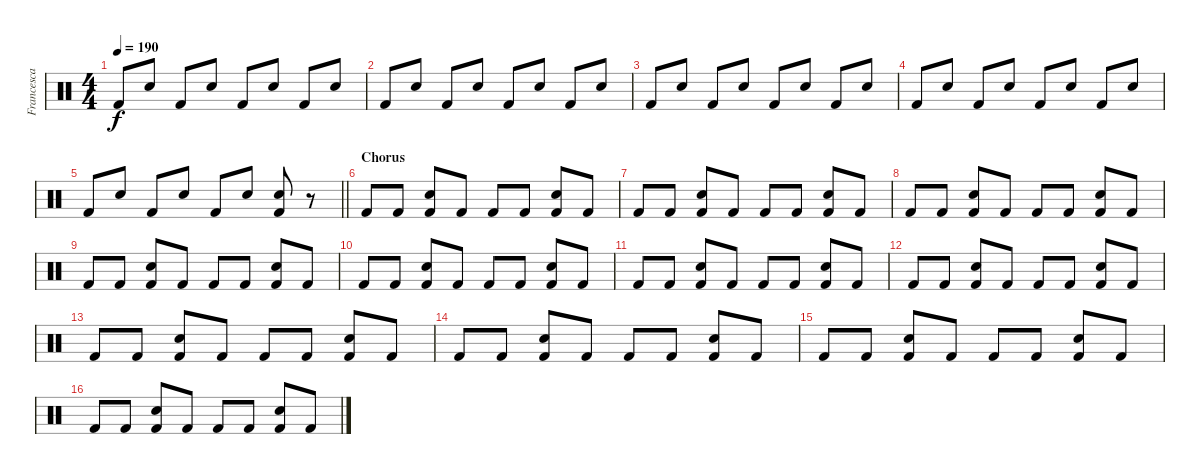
\track ("Francesca Tresca" "Francesca ") {instrument percussion}
\staff {score}
\articulation defaults
\ts (4 4)
\tempo 190
\clef neutral
\ks c "Kick (hit) 2".8{dy f} "Snare (hit) 2".8 "Kick (hit) 2".8 "Snare (hit) 2".8 "Kick (hit) 2".8 "Snare (hit) 2".8 "Kick (hit) 2".8 "Snare (hit) 2".8
|
"Kick (hit) 2".8 "Snare (hit) 2".8 "Kick (hit) 2".8 "Snare (hit) 2".8 "Kick (hit) 2".8 "Snare (hit) 2".8 "Kick (hit) 2".8 "Snare (hit) 2".8 |
"Kick (hit) 2".8 "Snare (hit) 2".8 "Kick (hit) 2".8 "Snare (hit) 2".8 "Kick (hit) 2".8 "Snare (hit) 2".8 "Kick (hit) 2".8 "Snare (hit) 2".8 |
"Kick (hit) 2".8 "Snare (hit) 2".8 "Kick (hit) 2".8 "Snare (hit) 2".8 "Kick (hit) 2".8 "Snare (hit) 2".8 "Kick (hit) 2".8 "Snare (hit) 2".8 |
\barLineRight lightlight "Kick (hit) 2".8 "Snare (hit) 2".8 "Kick (hit) 2".8 "Snare (hit) 2".8 "Kick (hit) 2".8 "Snare (hit) 2".8
("Snare (hit) 2" "Kick (hit) 2").8 r.8 |
\section ("" "Chorus")
"Kick (hit) 2".8 "Kick (hit) 2".8 ("Snare (hit) 2" "Kick (hit) 2").8 "Kick (hit) 2".8 "Kick (hit) 2".8 "Kick (hit) 2".8 ("Snare (hit) 2" "Kick (hit) 2").8 "Kick (hit) 2".8 |
"Kick (hit) 2".8 "Kick (hit) 2".8 ("Snare (hit) 2" "Kick (hit) 2").8 "Kick (hit) 2".8 "Kick (hit) 2".8 "Kick (hit) 2".8 ("Snare (hit) 2" "Kick (hit) 2").8 "Kick (hit) 2".8 |
"Kick (hit) 2".8 "Kick (hit) 2".8 ("Snare (hit) 2" "Kick (hit) 2").8 "Kick (hit) 2".8 "Kick (hit) 2".8 "Kick (hit) 2".8 ("Snare (hit) 2" "Kick (hit) 2").8 "Kick (hit) 2".8 |
"Kick (hit) 2".8 "Kick (hit) 2".8 ("Snare (hit) 2" "Kick (hit) 2").8 "Kick (hit) 2".8 "Kick (hit) 2".8 "Kick (hit) 2".8 ("Snare (hit) 2" "Kick (hit) 2").8 "Kick (hit) 2".8 |
"Kick (hit) 2".8 "Kick (hit) 2".8 ("Snare (hit) 2" "Kick (hit) 2").8 "Kick (hit) 2".8 "Kick (hit) 2".8 "Kick (hit) 2".8 ("Snare (hit) 2" "Kick (hit) 2").8 "Kick (hit) 2".8 |
"Kick (hit) 2".8 "Kick (hit) 2".8 ("Snare (hit) 2" "Kick (hit) 2").8 "Kick (hit) 2".8 "Kick (hit) 2".8 "Kick (hit) 2".8 ("Snare (hit) 2" "Kick (hit) 2").8 "Kick (hit) 2".8 |
"Kick (hit) 2".8 "Kick (hit) 2".8 ("Snare (hit) 2" "Kick (hit) 2").8 "Kick (hit) 2".8 "Kick (hit) 2".8 "Kick (hit) 2".8 ("Snare (hit) 2" "Kick (hit) 2").8 "Kick (hit) 2".8 |
"Kick (hit) 2".8 "Kick (hit) 2".8 ("Snare (hit) 2" "Kick (hit) 2").8 "Kick (hit) 2".8 "Kick (hit) 2".8 "Kick (hit) 2".8 ("Snare (hit) 2" "Kick (hit) 2").8 "Kick (hit) 2".8 |
"Kick (hit) 2".8 "Kick (hit) 2".8 ("Snare (hit) 2" "Kick (hit) 2").8 "Kick (hit) 2".8 "Kick (hit) 2".8 "Kick (hit) 2".8 ("Snare (hit) 2" "Kick (hit) 2").8 "Kick (hit) 2".8 |
"Kick (hit) 2".8 "Kick (hit) 2".8 ("Snare (hit) 2" "Kick (hit) 2").8 "Kick (hit) 2".8 "Kick (hit) 2".8 "Kick (hit) 2".8 ("Snare (hit) 2" "Kick (hit) 2").8 "Kick (hit) 2".8 |
"Kick (hit) 2".8 "Kick (hit) 2".8 ("Snare (hit) 2" "Kick (hit) 2").8 "Kick (hit) 2".8 "Kick (hit) 2".8 "Kick (hit) 2".8 ("Snare (hit) 2" "Kick (hit) 2").8 "Kick (hit) 2".8
